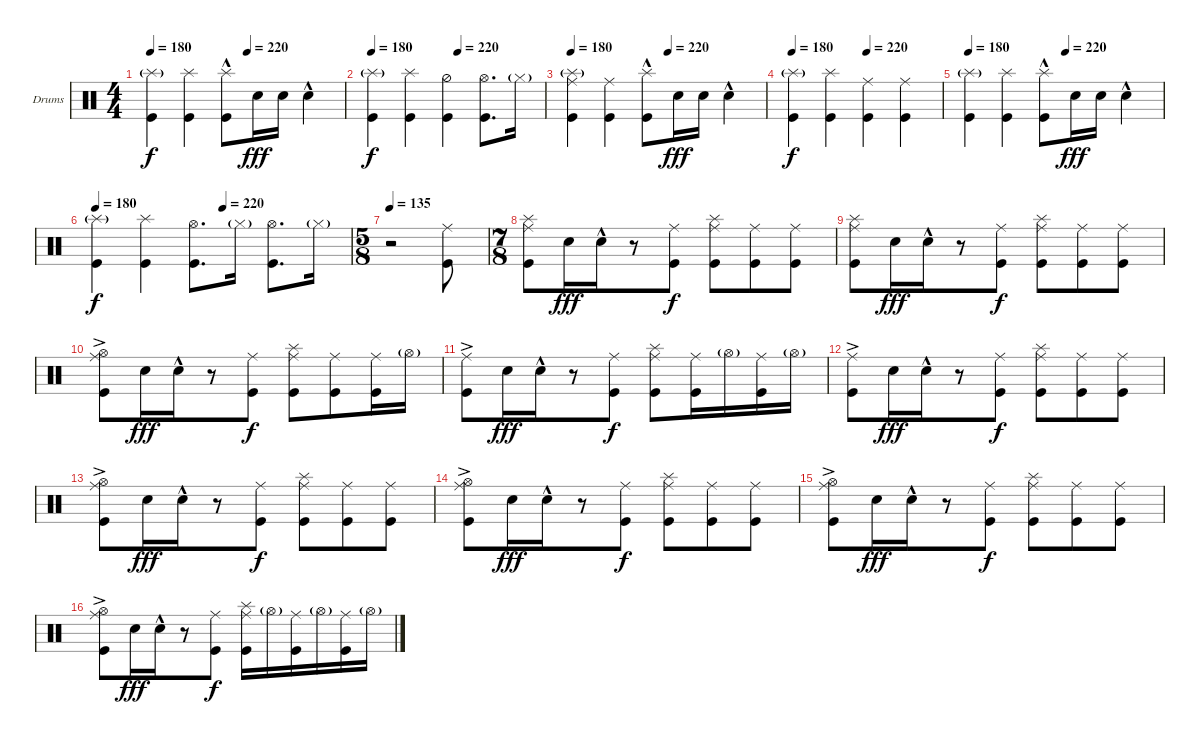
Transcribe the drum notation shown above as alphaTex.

\defaultSystemsLayout 4
\bracketExtendMode groupsimilarinstruments
\firstSystemTrackNameOrientation horizontal
\otherSystemsTrackNameOrientation horizontal
\track ("Drumkit" "Drums") {instrument percussion}
\staff {score}
\articulation defaults
\ts (4 4)
\tempo 180
\tempo (220 0.5)
\clef neutral
\scale
0.262911
\ks c
("Kick (hit)" "Splash (hit)"{g}).4{dy f} ("Kick (hit)" "Splash (hit)").4 ("Splash (hit)"{hac} "Kick (hit)").8 "Snare (hit) 2".16{dy fff} "Snare (hit) 2".16 "Snare (hit) 2"{hac}.4 |
\tempo 180
\tempo (220 0.5)
\scale
0.333333 ("Kick (hit)" "Splash (hit)"{g}).4{dy f} ("Kick (hit)" "Splash (hit)").4 ("Kick (hit)" "Hi-Hat (half)").4 ("Kick (hit)" "Hi-Hat (open)").8{d} "Hi-Hat (closed)"{g}.16 |
\tempo 180
\tempo (220 0.5)
\scale
0.333333 ("Kick (hit)" "Splash (hit)"{g} "Ride (middle)").4 ("Kick (hit)" "Ride (middle)").4 ("Splash (hit)"{hac} "Kick (hit)").8 "Snare (hit) 2".16{dy fff} "Snare (hit) 2".16 "Snare (hit) 2"{hac}.4 |
\tempo 180
\tempo (220 0.5)
\scale
0.333333 ("Kick (hit)" "Splash (hit)"{g}).4{dy f} ("Kick (hit)" "Splash (hit)").4 ("Kick (hit)" "Ride (middle)").4 ("Kick (hit)" "Ride (middle)").4 |
\tempo 180
\tempo (220 0.5)
\scale
0.333333 ("Kick (hit)" "Splash (hit)"{g}).4 ("Kick (hit)" "Splash (hit)").4 ("Splash (hit)"{hac} "Kick (hit)").8 "Snare (hit) 2".16{dy fff} "Snare (hit) 2".16 "Snare (hit) 2"{hac}.4 |
\tempo 180
\tempo (220 0.5)
\scale
0.333333 ("Kick (hit)" "Splash (hit)"{g}).4{dy f} ("Kick (hit)" "Splash (hit)").4 ("Kick (hit)" "Hi-Hat (open)").8{d} "Hi-Hat (closed)"{g}.16 ("Kick (hit)" "Hi-Hat (open)").8{d} "Hi-Hat (closed)"{g}.16 |
\ts (5 8)
\tempo 135
\scale
0.333333 r.2 ("Kick (hit)" "Ride (middle)").8 |
\ts (7 8)
\scale
0.474178 ("Kick (hit)" "Ride (middle)" "Splash (hit)").8 "Snare (hit) 2".16{dy fff} "Snare (hit) 2"{hac}.16 r.8 ("Kick (hit)" "Ride (middle)").8{dy f} ("Kick (hit)" "Ride (middle)" "Splash (hit)").8 ("Kick (hit)" "Ride (middle)").8 ("Kick (hit)" "Ride (middle)").8 |
\scale
0.262911 ("Kick (hit)" "Ride (middle)" "Splash (hit)").8 "Snare (hit) 2".16{dy fff} "Snare (hit) 2"{hac}.16 r.8 ("Kick (hit)" "Ride (middle)").8{dy f} ("Kick (hit)" "Ride (middle)" "Splash (hit)").8 ("Kick (hit)" "Ride (middle)").8 ("Kick (hit)" "Ride (middle)").8 |
\scale
0.262911 ("Kick (hit)" "Ride (middle)"{ac} "Hi-Hat (open)").8 "Snare (hit) 2".16{dy fff} "Snare (hit) 2"{hac}.16 r.8 ("Kick (hit)" "Ride (middle)").8{dy f} ("Kick (hit)" "Ride (middle)" "Splash (hit)").8 ("Kick (hit)" "Ride (middle)").8 ("Kick (hit)" "Ride (middle)").16 "Hi-Hat (open)"{g}.16 |
\scale
0.333333 ("Kick (hit)" "Ride (middle)"{ac}).8 "Snare (hit) 2".16{dy fff} "Snare (hit) 2"{hac}.16 r.8 ("Kick (hit)" "Ride (middle)").8{dy f} ("Kick (hit)" "Ride (middle)" "Splash (hit)").8 ("Kick (hit)" "Ride (middle)").16 "Hi-Hat (open)"{g}.16 ("Kick (hit)" "Ride (middle)").16 "Hi-Hat (open)"{g}.16 |
\scale
0.333333 ("Kick (hit)" "Ride (middle)"{ac}).8 "Snare (hit) 2".16{dy fff} "Snare (hit) 2"{hac}.16 r.8 ("Kick (hit)" "Ride (middle)").8{dy f} ("Kick (hit)" "Ride (middle)" "Splash (hit)").8 ("Kick (hit)" "Ride (middle)").8 ("Kick (hit)" "Ride (middle)").8 |
\scale
0.333333 ("Kick (hit)" "Ride (middle)"{ac} "Hi-Hat (open)").8 "Snare (hit) 2".16{dy fff} "Snare (hit) 2"{hac}.16 r.8 ("Kick (hit)" "Ride (middle)").8{dy f} ("Kick (hit)" "Ride (middle)" "Splash (hit)").8 ("Kick (hit)" "Ride (middle)").8 ("Kick (hit)" "Ride (middle)").8 |
\scale
0.333333 ("Kick (hit)" "Ride (middle)"{ac} "Hi-Hat (open)").8 "Snare (hit) 2".16{dy fff} "Snare (hit) 2"{hac}.16 r.8 ("Kick (hit)" "Ride (middle)").8{dy f} ("Kick (hit)" "Ride (middle)" "Splash (hit)").8 ("Kick (hit)" "Ride (middle)").8 ("Kick (hit)" "Ride (middle)").8 |
\scale
0.333333 ("Kick (hit)" "Ride (middle)"{ac} "Hi-Hat (open)").8 "Snare (hit) 2".16{dy fff} "Snare (hit) 2"{hac}.16 r.8 ("Kick (hit)" "Ride (middle)").8{dy f} ("Kick (hit)" "Ride (middle)" "Splash (hit)").8 ("Kick (hit)" "Ride (middle)").8 ("Kick (hit)" "Ride (middle)").8 |
\scale
0.333333 ("Kick (hit)" "Ride (middle)"{ac} "Hi-Hat (open)").8 "Snare (hit) 2".16{dy fff} "Snare (hit) 2"{hac}.16 r.8 ("Kick (hit)" "Ride (middle)").8{dy f} ("Kick (hit)" "Ride (middle)" "Splash (hit)").16 "Hi-Hat (open)"{g}.16 ("Kick (hit)" "Ride (middle)").16 "Hi-Hat (open)"{g}.16 ("Kick (hit)" "Ride (middle)").16 "Hi-Hat (open)"{g}.16
